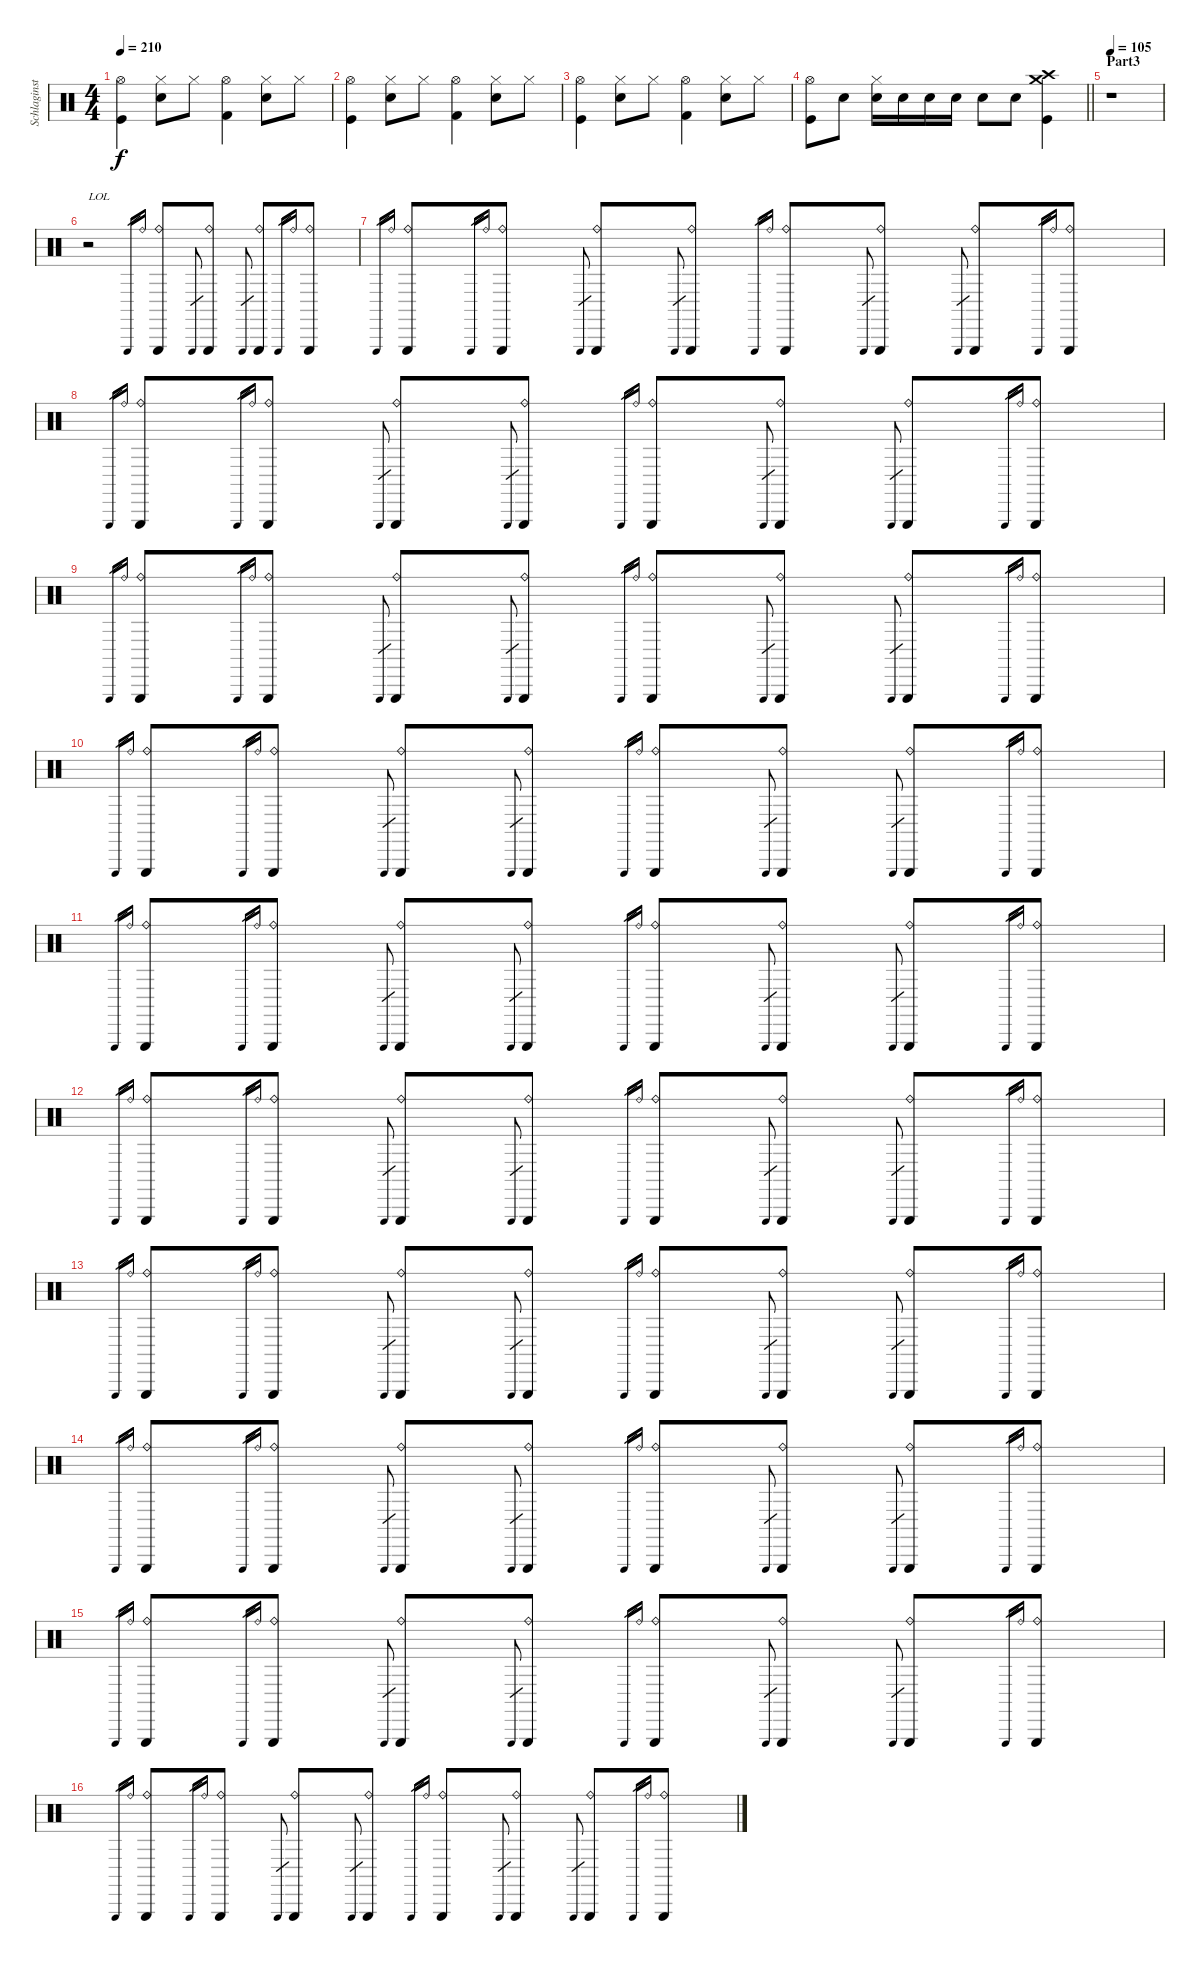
\track ("Schlaginstrumente - Auswahl" "Schlaginst") {instrument percussion}
\staff {score}
\articulation defaults
\ts (4 4)
\tempo 210
\clef neutral
\ks c
("Hi-Hat (open)" "Kick (hit)").4{dy f} ("Hi-Hat (closed)" "Snare (hit) 2").8 "Hi-Hat (closed)".8 ("Hi-Hat (open)" "Kick (hit) 2").4 ("Hi-Hat (closed)" "Snare (hit) 2").8 "Hi-Hat (closed)".8 |
("Hi-Hat (open)" "Kick (hit)").4 ("Hi-Hat (closed)" "Snare (hit) 2").8 "Hi-Hat (closed)".8 ("Hi-Hat (open)" "Kick (hit) 2").4 ("Hi-Hat (closed)" "Snare (hit) 2").8 "Hi-Hat (closed)".8 |
("Hi-Hat (open)" "Kick (hit)").4 ("Hi-Hat (closed)" "Snare (hit) 2").8 "Hi-Hat (closed)".8 ("Hi-Hat (open)" "Kick (hit) 2").4 ("Hi-Hat (closed)" "Snare (hit) 2").8 "Hi-Hat (closed)".8 |
\barLineRight lightlight
("Hi-Hat (open)" "Kick (hit)").8 "Snare (hit) 2".8 ("Hi-Hat (closed)" "Snare (hit) 2").16 "Snare (hit) 2".16 "Snare (hit) 2".16 "Snare (hit) 2".16 "Snare (hit) 2".8 "Snare (hit) 2".8 ("Crash high (hit)" "Crash medium (hit)" "Kick (hit)").4 |
\section ("" "Part3")
\tempo 105
r.1 |
r.2{txt "LOL"} "Triangle (hit)".16{gr} "Ride (bell)".16{gr} ("Triangle (hit)" "Ride (bell)").8 "Triangle (hit)".8{gr} ("Triangle (hit)" "Ride (bell)").8 "Triangle (hit)".8{gr} ("Triangle (hit)" "Ride (bell)").8 "Triangle (hit)".16{gr} "Ride (bell)".16{gr} ("Triangle (hit)" "Ride (bell)").8 |
"Triangle (hit)".16{gr} "Ride (bell)".16{gr} ("Triangle (hit)" "Ride (bell)").8 "Triangle (hit)".16{gr} "Ride (bell)".16{gr} ("Triangle (hit)" "Ride (bell)").8 "Triangle (hit)".8{gr} ("Triangle (hit)" "Ride (bell)").8 "Triangle (hit)".8{gr} ("Triangle (hit)" "Ride (bell)").8 "Triangle (hit)".16{gr} "Ride (bell)".16{gr} ("Triangle (hit)" "Ride (bell)").8 "Triangle (hit)".8{gr} ("Triangle (hit)" "Ride (bell)").8 "Triangle (hit)".8{gr} ("Triangle (hit)" "Ride (bell)").8 "Triangle (hit)".16{gr} "Ride (bell)".16{gr} ("Triangle (hit)" "Ride (bell)").8 |
"Triangle (hit)".16{gr} "Ride (bell)".16{gr} ("Triangle (hit)" "Ride (bell)").8 "Triangle (hit)".16{gr} "Ride (bell)".16{gr} ("Triangle (hit)" "Ride (bell)").8 "Triangle (hit)".8{gr} ("Triangle (hit)" "Ride (bell)").8 "Triangle (hit)".8{gr} ("Triangle (hit)" "Ride (bell)").8 "Triangle (hit)".16{gr} "Ride (bell)".16{gr} ("Triangle (hit)" "Ride (bell)").8 "Triangle (hit)".8{gr} ("Triangle (hit)" "Ride (bell)").8 "Triangle (hit)".8{gr} ("Triangle (hit)" "Ride (bell)").8 "Triangle (hit)".16{gr} "Ride (bell)".16{gr} ("Triangle (hit)" "Ride (bell)").8 |
"Triangle (hit)".16{gr} "Ride (bell)".16{gr} ("Triangle (hit)" "Ride (bell)").8 "Triangle (hit)".16{gr} "Ride (bell)".16{gr} ("Triangle (hit)" "Ride (bell)").8 "Triangle (hit)".8{gr} ("Triangle (hit)" "Ride (bell)").8 "Triangle (hit)".8{gr} ("Triangle (hit)" "Ride (bell)").8 "Triangle (hit)".16{gr} "Ride (bell)".16{gr} ("Triangle (hit)" "Ride (bell)").8 "Triangle (hit)".8{gr} ("Triangle (hit)" "Ride (bell)").8 "Triangle (hit)".8{gr} ("Triangle (hit)" "Ride (bell)").8 "Triangle (hit)".16{gr} "Ride (bell)".16{gr} ("Triangle (hit)" "Ride (bell)").8 |
"Triangle (hit)".16{gr} "Ride (bell)".16{gr} ("Triangle (hit)" "Ride (bell)").8 "Triangle (hit)".16{gr} "Ride (bell)".16{gr} ("Triangle (hit)" "Ride (bell)").8 "Triangle (hit)".8{gr} ("Triangle (hit)" "Ride (bell)").8 "Triangle (hit)".8{gr} ("Triangle (hit)" "Ride (bell)").8 "Triangle (hit)".16{gr} "Ride (bell)".16{gr} ("Triangle (hit)" "Ride (bell)").8 "Triangle (hit)".8{gr} ("Triangle (hit)" "Ride (bell)").8 "Triangle (hit)".8{gr} ("Triangle (hit)" "Ride (bell)").8 "Triangle (hit)".16{gr} "Ride (bell)".16{gr} ("Triangle (hit)" "Ride (bell)").8 |
"Triangle (hit)".16{gr} "Ride (bell)".16{gr} ("Triangle (hit)" "Ride (bell)").8 "Triangle (hit)".16{gr} "Ride (bell)".16{gr} ("Triangle (hit)" "Ride (bell)").8 "Triangle (hit)".8{gr} ("Triangle (hit)" "Ride (bell)").8 "Triangle (hit)".8{gr} ("Triangle (hit)" "Ride (bell)").8 "Triangle (hit)".16{gr} "Ride (bell)".16{gr} ("Triangle (hit)" "Ride (bell)").8 "Triangle (hit)".8{gr} ("Triangle (hit)" "Ride (bell)").8 "Triangle (hit)".8{gr} ("Triangle (hit)" "Ride (bell)").8 "Triangle (hit)".16{gr} "Ride (bell)".16{gr} ("Triangle (hit)" "Ride (bell)").8 |
"Triangle (hit)".16{gr} "Ride (bell)".16{gr} ("Triangle (hit)" "Ride (bell)").8 "Triangle (hit)".16{gr} "Ride (bell)".16{gr} ("Triangle (hit)" "Ride (bell)").8 "Triangle (hit)".8{gr} ("Triangle (hit)" "Ride (bell)").8 "Triangle (hit)".8{gr} ("Triangle (hit)" "Ride (bell)").8 "Triangle (hit)".16{gr} "Ride (bell)".16{gr} ("Triangle (hit)" "Ride (bell)").8 "Triangle (hit)".8{gr} ("Triangle (hit)" "Ride (bell)").8 "Triangle (hit)".8{gr} ("Triangle (hit)" "Ride (bell)").8 "Triangle (hit)".16{gr} "Ride (bell)".16{gr} ("Triangle (hit)" "Ride (bell)").8 |
"Triangle (hit)".16{gr} "Ride (bell)".16{gr} ("Triangle (hit)" "Ride (bell)").8 "Triangle (hit)".16{gr} "Ride (bell)".16{gr} ("Triangle (hit)" "Ride (bell)").8 "Triangle (hit)".8{gr} ("Triangle (hit)" "Ride (bell)").8 "Triangle (hit)".8{gr} ("Triangle (hit)" "Ride (bell)").8 "Triangle (hit)".16{gr} "Ride (bell)".16{gr} ("Triangle (hit)" "Ride (bell)").8 "Triangle (hit)".8{gr} ("Triangle (hit)" "Ride (bell)").8 "Triangle (hit)".8{gr} ("Triangle (hit)" "Ride (bell)").8 "Triangle (hit)".16{gr} "Ride (bell)".16{gr} ("Triangle (hit)" "Ride (bell)").8 |
"Triangle (hit)".16{gr} "Ride (bell)".16{gr} ("Triangle (hit)" "Ride (bell)").8 "Triangle (hit)".16{gr} "Ride (bell)".16{gr} ("Triangle (hit)" "Ride (bell)").8 "Triangle (hit)".8{gr} ("Triangle (hit)" "Ride (bell)").8 "Triangle (hit)".8{gr} ("Triangle (hit)" "Ride (bell)").8 "Triangle (hit)".16{gr} "Ride (bell)".16{gr} ("Triangle (hit)" "Ride (bell)").8 "Triangle (hit)".8{gr} ("Triangle (hit)" "Ride (bell)").8 "Triangle (hit)".8{gr} ("Triangle (hit)" "Ride (bell)").8 "Triangle (hit)".16{gr} "Ride (bell)".16{gr} ("Triangle (hit)" "Ride (bell)").8 |
"Triangle (hit)".16{gr} "Ride (bell)".16{gr} ("Triangle (hit)" "Ride (bell)").8 "Triangle (hit)".16{gr} "Ride (bell)".16{gr} ("Triangle (hit)" "Ride (bell)").8 "Triangle (hit)".8{gr} ("Triangle (hit)" "Ride (bell)").8 "Triangle (hit)".8{gr} ("Triangle (hit)" "Ride (bell)").8 "Triangle (hit)".16{gr} "Ride (bell)".16{gr} ("Triangle (hit)" "Ride (bell)").8 "Triangle (hit)".8{gr} ("Triangle (hit)" "Ride (bell)").8 "Triangle (hit)".8{gr} ("Triangle (hit)" "Ride (bell)").8 "Triangle (hit)".16{gr} "Ride (bell)".16{gr} ("Triangle (hit)" "Ride (bell)").8 |
"Triangle (hit)".16{gr} "Ride (bell)".16{gr} ("Triangle (hit)" "Ride (bell)").8 "Triangle (hit)".16{gr} "Ride (bell)".16{gr} ("Triangle (hit)" "Ride (bell)").8 "Triangle (hit)".8{gr} ("Triangle (hit)" "Ride (bell)").8 "Triangle (hit)".8{gr} ("Triangle (hit)" "Ride (bell)").8 "Triangle (hit)".16{gr} "Ride (bell)".16{gr} ("Triangle (hit)" "Ride (bell)").8 "Triangle (hit)".8{gr} ("Triangle (hit)" "Ride (bell)").8 "Triangle (hit)".8{gr} ("Triangle (hit)" "Ride (bell)").8 "Triangle (hit)".16{gr} "Ride (bell)".16{gr} ("Triangle (hit)" "Ride (bell)").8
